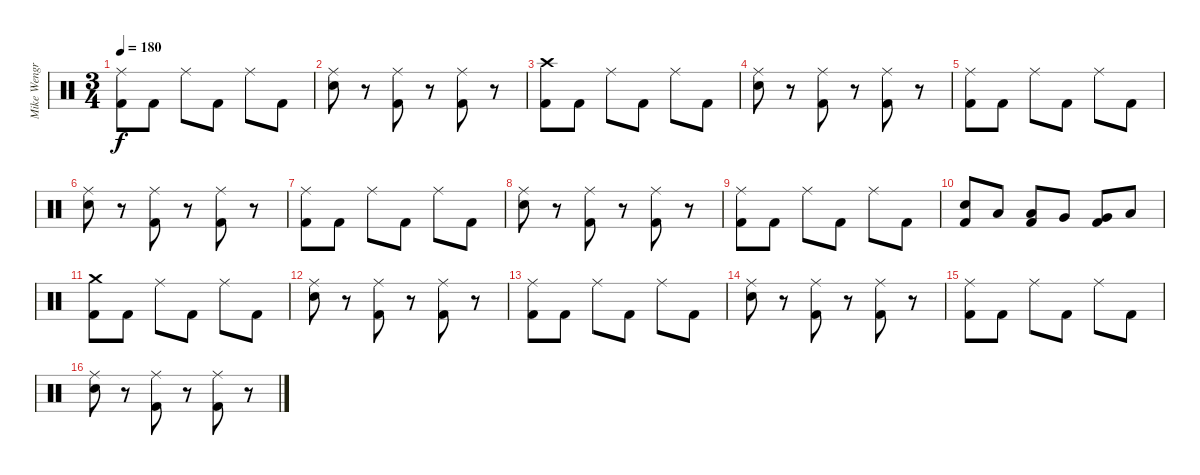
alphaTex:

\track ("Mike Wengren" "Mike Wengr") {instrument percussion}
\staff {score}
\articulation defaults
\ts (3 4)
\tempo 180
\clef neutral
\ks c
("Ride (middle)" "Kick (hit) 2").8{dy f} "Kick (hit) 2".8 "Ride (middle)".8 "Kick (hit) 2".8 "Ride (middle)".8 "Kick (hit) 2".8 |
("Ride (middle)" "Snare (hit) 2").8 r.8 ("Ride (middle)" "Kick (hit) 2").8 r.8 ("Ride (middle)" "Kick (hit) 2").8 r.8 |
("Crash high (hit)" "Kick (hit) 2").8 "Kick (hit) 2".8 "Ride (middle)".8 "Kick (hit) 2".8 "Ride (middle)".8 "Kick (hit) 2".8 |
("Ride (middle)" "Snare (hit) 2").8 r.8 ("Ride (middle)" "Kick (hit) 2").8 r.8 ("Ride (middle)" "Kick (hit) 2").8 r.8 |
("Ride (middle)" "Kick (hit) 2").8 "Kick (hit) 2".8 "Ride (middle)".8 "Kick (hit) 2".8 "Ride (middle)".8 "Kick (hit) 2".8 |
("Ride (middle)" "Snare (hit) 2").8 r.8 ("Ride (middle)" "Kick (hit) 2").8 r.8 ("Ride (middle)" "Kick (hit) 2").8 r.8 |
("Ride (middle)" "Kick (hit) 2").8 "Kick (hit) 2".8 "Ride (middle)".8 "Kick (hit) 2".8 "Ride (middle)".8 "Kick (hit) 2".8 |
("Ride (middle)" "Snare (hit) 2").8 r.8 ("Ride (middle)" "Kick (hit) 2").8 r.8 ("Ride (middle)" "Kick (hit) 2").8 r.8 |
("Ride (middle)" "Kick (hit) 2").8 "Kick (hit) 2".8 "Ride (middle)".8 "Kick (hit) 2".8 "Ride (middle)".8 "Kick (hit) 2".8 |
("Snare (hit) 2" "Kick (hit) 2").8 "Low Tom (hit)".8 ("Low Tom (hit)" "Kick (hit) 2").8 "Very Low Tom (hit)".8 ("Very Low Tom (hit)" "Kick (hit) 2").8 "Low Floor Tom (hit)".8 |
("Crash medium (hit)" "Kick (hit) 2").8 "Kick (hit) 2".8 "Ride (middle)".8 "Kick (hit) 2".8 "Ride (middle)".8 "Kick (hit) 2".8 |
("Ride (middle)" "Snare (hit) 2").8 r.8 ("Ride (middle)" "Kick (hit) 2").8 r.8 ("Ride (middle)" "Kick (hit) 2").8 r.8 |
("Ride (middle)" "Kick (hit) 2").8 "Kick (hit) 2".8 "Ride (middle)".8 "Kick (hit) 2".8 "Ride (middle)".8 "Kick (hit) 2".8 |
("Ride (middle)" "Snare (hit) 2").8 r.8 ("Ride (middle)" "Kick (hit) 2").8 r.8 ("Ride (middle)" "Kick (hit) 2").8 r.8 |
("Ride (middle)" "Kick (hit) 2").8 "Kick (hit) 2".8 "Ride (middle)".8 "Kick (hit) 2".8 "Ride (middle)".8 "Kick (hit) 2".8 |
("Ride (middle)" "Snare (hit) 2").8 r.8 ("Ride (middle)" "Kick (hit) 2").8 r.8 ("Ride (middle)" "Kick (hit) 2").8 r.8
